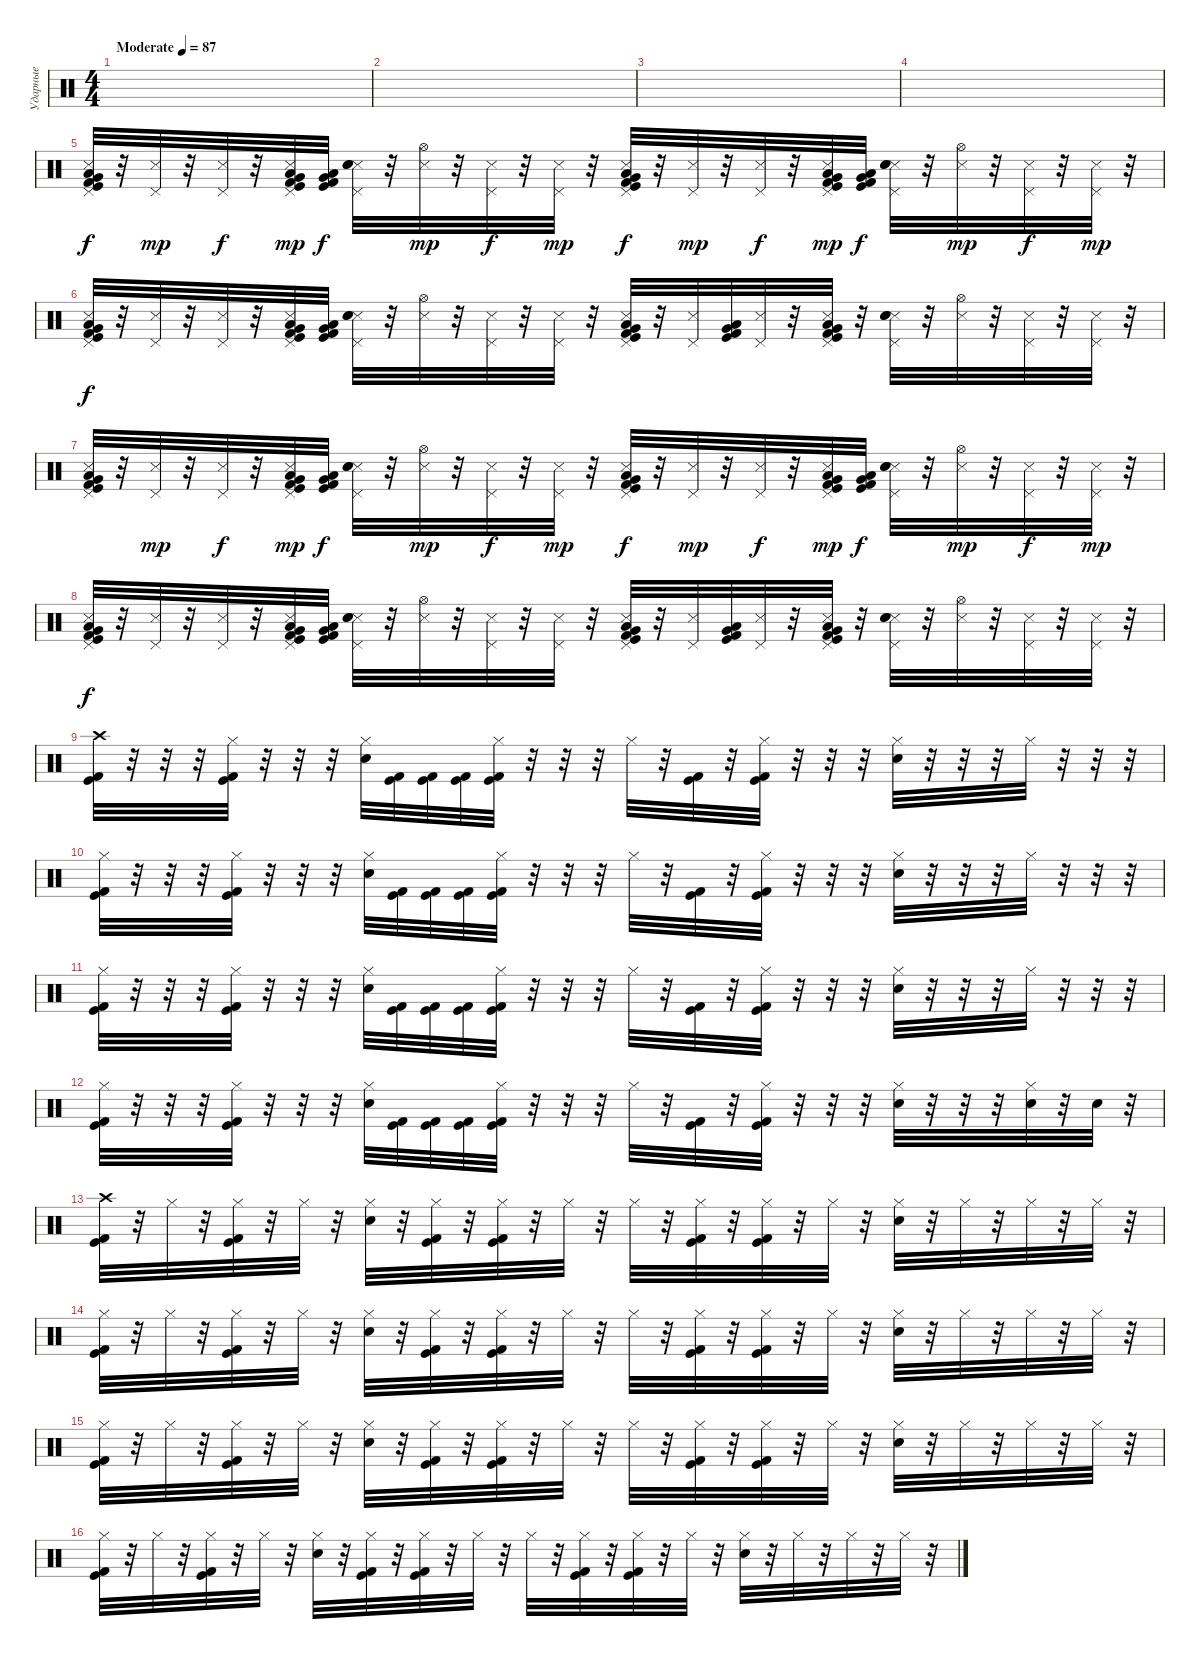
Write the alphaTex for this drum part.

\track ("Ударные" "Ударные") {instrument percussion}
\staff {score}
\articulation defaults
\ts (4 4)
\tempo (87 "Moderate")
\clef neutral
\ks c
|
|
|
|
("Snare (side stick) 3" "Pedal Hi-Hat (hit)" "Very Low Tom (hit)" "Low Floor Tom (hit)" "Kick (hit) 2" "Kick (hit)").32 r.32 ("Snare (side stick) 3" "Pedal Hi-Hat (hit)").32{dy mp} r.32 ("Snare (side stick) 3" "Pedal Hi-Hat (hit)").32{dy f} r.32 ("Snare (side stick) 3" "Pedal Hi-Hat (hit)" "Very Low Tom (hit)" "Low Floor Tom (hit)" "Kick (hit) 2" "Kick (hit)").32{dy mp} ("Very Low Tom (hit)" "Low Floor Tom (hit)" "Kick (hit) 2" "Kick (hit)").32{dy f} ("Snare (side stick) 3" "Pedal Hi-Hat (hit)" "Hand Clap (hit)" "Snare (hit) 2").32 r.32 ("Snare (side stick) 3" "Hi-Hat (open)").32{dy mp} r.32 ("Snare (side stick) 3" "Pedal Hi-Hat (hit)").32{dy f} r.32 ("Snare (side stick) 3" "Pedal Hi-Hat (hit)").32{dy mp} r.32 ("Snare (side stick) 3" "Pedal Hi-Hat (hit)" "Very Low Tom (hit)" "Low Floor Tom (hit)" "Kick (hit) 2" "Kick (hit)").32{dy f} r.32 ("Snare (side stick) 3" "Pedal Hi-Hat (hit)").32{dy mp} r.32 ("Snare (side stick) 3" "Pedal Hi-Hat (hit)").32{dy f} r.32 ("Snare (side stick) 3" "Pedal Hi-Hat (hit)" "Very Low Tom (hit)" "Low Floor Tom (hit)" "Kick (hit) 2" "Kick (hit)").32{dy mp} ("Very Low Tom (hit)" "Low Floor Tom (hit)" "Kick (hit) 2" "Kick (hit)").32{dy f} ("Snare (side stick) 3" "Pedal Hi-Hat (hit)" "Hand Clap (hit)" "Snare (hit) 2").32 r.32 ("Snare (side stick) 3" "Hi-Hat (open)").32{dy mp} r.32 ("Snare (side stick) 3" "Pedal Hi-Hat (hit)").32{dy f} r.32 ("Snare (side stick) 3" "Pedal Hi-Hat (hit)").32{dy mp} r.32 |
("Snare (side stick) 3" "Pedal Hi-Hat (hit)" "Very Low Tom (hit)" "Low Floor Tom (hit)" "Kick (hit) 2" "Kick (hit)").32{dy f} r.32 ("Snare (side stick) 3" "Pedal Hi-Hat (hit)").32 r.32 ("Snare (side stick) 3" "Pedal Hi-Hat (hit)").32 r.32 ("Snare (side stick) 3" "Pedal Hi-Hat (hit)" "Very Low Tom (hit)" "Low Floor Tom (hit)" "Kick (hit) 2" "Kick (hit)").32 ("Very Low Tom (hit)" "Low Floor Tom (hit)" "Kick (hit) 2" "Kick (hit)").32 ("Snare (side stick) 3" "Pedal Hi-Hat (hit)" "Hand Clap (hit)" "Snare (hit) 2").32 r.32 ("Snare (side stick) 3" "Hi-Hat (open)").32 r.32 ("Snare (side stick) 3" "Pedal Hi-Hat (hit)").32 r.32 ("Snare (side stick) 3" "Pedal Hi-Hat (hit)").32 r.32 ("Snare (side stick) 3" "Pedal Hi-Hat (hit)" "Very Low Tom (hit)" "Low Floor Tom (hit)" "Kick (hit) 2" "Kick (hit)").32 r.32 ("Snare (side stick) 3" "Pedal Hi-Hat (hit)").32 ("Very Low Tom (hit)" "Low Floor Tom (hit)" "Kick (hit) 2" "Kick (hit)").32 ("Snare (side stick) 3" "Pedal Hi-Hat (hit)").32 r.32 ("Snare (side stick) 3" "Pedal Hi-Hat (hit)" "Very Low Tom (hit)" "Low Floor Tom (hit)" "Kick (hit) 2" "Kick (hit)").32 r.32 ("Snare (side stick) 3" "Pedal Hi-Hat (hit)" "Hand Clap (hit)" "Snare (hit) 2").32 r.32 ("Snare (side stick) 3" "Hi-Hat (open)").32 r.32 ("Snare (side stick) 3" "Pedal Hi-Hat (hit)").32 r.32 ("Snare (side stick) 3" "Pedal Hi-Hat (hit)").32 r.32 |
("Snare (side stick) 3" "Pedal Hi-Hat (hit)" "Very Low Tom (hit)" "Low Floor Tom (hit)" "Kick (hit) 2" "Kick (hit)").32 r.32 ("Snare (side stick) 3" "Pedal Hi-Hat (hit)").32{dy mp} r.32 ("Snare (side stick) 3" "Pedal Hi-Hat (hit)").32{dy f} r.32 ("Snare (side stick) 3" "Pedal Hi-Hat (hit)" "Very Low Tom (hit)" "Low Floor Tom (hit)" "Kick (hit) 2" "Kick (hit)").32{dy mp} ("Very Low Tom (hit)" "Low Floor Tom (hit)" "Kick (hit) 2" "Kick (hit)").32{dy f} ("Snare (side stick) 3" "Pedal Hi-Hat (hit)" "Hand Clap (hit)" "Snare (hit) 2").32 r.32 ("Snare (side stick) 3" "Hi-Hat (open)").32{dy mp} r.32 ("Snare (side stick) 3" "Pedal Hi-Hat (hit)").32{dy f} r.32 ("Snare (side stick) 3" "Pedal Hi-Hat (hit)").32{dy mp} r.32 ("Snare (side stick) 3" "Pedal Hi-Hat (hit)" "Very Low Tom (hit)" "Low Floor Tom (hit)" "Kick (hit) 2" "Kick (hit)").32{dy f} r.32 ("Snare (side stick) 3" "Pedal Hi-Hat (hit)").32{dy mp} r.32 ("Snare (side stick) 3" "Pedal Hi-Hat (hit)").32{dy f} r.32 ("Snare (side stick) 3" "Pedal Hi-Hat (hit)" "Very Low Tom (hit)" "Low Floor Tom (hit)" "Kick (hit) 2" "Kick (hit)").32{dy mp} ("Very Low Tom (hit)" "Low Floor Tom (hit)" "Kick (hit) 2" "Kick (hit)").32{dy f} ("Snare (side stick) 3" "Pedal Hi-Hat (hit)" "Hand Clap (hit)" "Snare (hit) 2").32 r.32 ("Snare (side stick) 3" "Hi-Hat (open)").32{dy mp} r.32 ("Snare (side stick) 3" "Pedal Hi-Hat (hit)").32{dy f} r.32 ("Snare (side stick) 3" "Pedal Hi-Hat (hit)").32{dy mp} r.32 |
("Snare (side stick) 3" "Pedal Hi-Hat (hit)" "Very Low Tom (hit)" "Low Floor Tom (hit)" "Kick (hit) 2" "Kick (hit)").32{dy f} r.32 ("Snare (side stick) 3" "Pedal Hi-Hat (hit)").32 r.32 ("Snare (side stick) 3" "Pedal Hi-Hat (hit)").32 r.32 ("Snare (side stick) 3" "Pedal Hi-Hat (hit)" "Very Low Tom (hit)" "Low Floor Tom (hit)" "Kick (hit) 2" "Kick (hit)").32 ("Very Low Tom (hit)" "Low Floor Tom (hit)" "Kick (hit) 2" "Kick (hit)").32 ("Snare (side stick) 3" "Pedal Hi-Hat (hit)" "Hand Clap (hit)" "Snare (hit) 2").32 r.32 ("Snare (side stick) 3" "Hi-Hat (open)").32 r.32 ("Snare (side stick) 3" "Pedal Hi-Hat (hit)").32 r.32 ("Snare (side stick) 3" "Pedal Hi-Hat (hit)").32 r.32 ("Snare (side stick) 3" "Pedal Hi-Hat (hit)" "Very Low Tom (hit)" "Low Floor Tom (hit)" "Kick (hit) 2" "Kick (hit)").32 r.32 ("Snare (side stick) 3" "Pedal Hi-Hat (hit)").32 ("Very Low Tom (hit)" "Low Floor Tom (hit)" "Kick (hit) 2" "Kick (hit)").32 ("Snare (side stick) 3" "Pedal Hi-Hat (hit)").32 r.32 ("Snare (side stick) 3" "Pedal Hi-Hat (hit)" "Very Low Tom (hit)" "Low Floor Tom (hit)" "Kick (hit) 2" "Kick (hit)").32 r.32 ("Snare (side stick) 3" "Pedal Hi-Hat (hit)" "Hand Clap (hit)" "Snare (hit) 2").32 r.32 ("Snare (side stick) 3" "Hi-Hat (open)").32 r.32 ("Snare (side stick) 3" "Pedal Hi-Hat (hit)").32 r.32 ("Snare (side stick) 3" "Pedal Hi-Hat (hit)").32 r.32 |
("Crash high (hit)" "Kick (hit) 2" "Kick (hit)").32 r.32 r.32 r.32 ("Hi-Hat (closed)" "Kick (hit) 2" "Kick (hit)").32 r.32 r.32 r.32 ("Hi-Hat (closed)" "Electric Snare (hit)").32 ("Kick (hit) 2" "Kick (hit)").32 ("Kick (hit) 2" "Kick (hit)").32 ("Kick (hit) 2" "Kick (hit)").32 ("Hi-Hat (closed)" "Kick (hit) 2" "Kick (hit)").32 r.32 r.32 r.32 "Hi-Hat (closed)".32 r.32 ("Kick (hit) 2" "Kick (hit)").32 r.32 ("Hi-Hat (closed)" "Kick (hit) 2" "Kick (hit)").32 r.32 r.32 r.32 ("Hi-Hat (closed)" "Electric Snare (hit)").32 r.32 r.32 r.32 "Hi-Hat (closed)".32 r.32 r.32 r.32 |
("Hi-Hat (closed)" "Kick (hit) 2" "Kick (hit)").32 r.32 r.32 r.32 ("Hi-Hat (closed)" "Kick (hit) 2" "Kick (hit)").32 r.32 r.32 r.32 ("Hi-Hat (closed)" "Electric Snare (hit)").32 ("Kick (hit) 2" "Kick (hit)").32 ("Kick (hit) 2" "Kick (hit)").32 ("Kick (hit) 2" "Kick (hit)").32 ("Hi-Hat (closed)" "Kick (hit) 2" "Kick (hit)").32 r.32 r.32 r.32 "Hi-Hat (closed)".32 r.32 ("Kick (hit) 2" "Kick (hit)").32 r.32 ("Hi-Hat (closed)" "Kick (hit) 2" "Kick (hit)").32 r.32 r.32 r.32 ("Hi-Hat (closed)" "Electric Snare (hit)").32 r.32 r.32 r.32 "Hi-Hat (closed)".32 r.32 r.32 r.32 |
("Hi-Hat (closed)" "Kick (hit) 2" "Kick (hit)").32 r.32 r.32 r.32 ("Hi-Hat (closed)" "Kick (hit) 2" "Kick (hit)").32 r.32 r.32 r.32 ("Hi-Hat (closed)" "Electric Snare (hit)").32 ("Kick (hit) 2" "Kick (hit)").32 ("Kick (hit) 2" "Kick (hit)").32 ("Kick (hit) 2" "Kick (hit)").32 ("Hi-Hat (closed)" "Kick (hit) 2" "Kick (hit)").32 r.32 r.32 r.32 "Hi-Hat (closed)".32 r.32 ("Kick (hit) 2" "Kick (hit)").32 r.32 ("Hi-Hat (closed)" "Kick (hit) 2" "Kick (hit)").32 r.32 r.32 r.32 ("Hi-Hat (closed)" "Electric Snare (hit)").32 r.32 r.32 r.32 "Hi-Hat (closed)".32 r.32 r.32 r.32 |
("Hi-Hat (closed)" "Kick (hit) 2" "Kick (hit)").32 r.32 r.32 r.32 ("Hi-Hat (closed)" "Kick (hit) 2" "Kick (hit)").32 r.32 r.32 r.32 ("Hi-Hat (closed)" "Electric Snare (hit)").32 ("Kick (hit) 2" "Kick (hit)").32 ("Kick (hit) 2" "Kick (hit)").32 ("Kick (hit) 2" "Kick (hit)").32 ("Hi-Hat (closed)" "Kick (hit) 2" "Kick (hit)").32 r.32 r.32 r.32 "Hi-Hat (closed)".32 r.32 ("Kick (hit) 2" "Kick (hit)").32 r.32 ("Hi-Hat (closed)" "Kick (hit) 2" "Kick (hit)").32 r.32 r.32 r.32 ("Hi-Hat (closed)" "Electric Snare (hit)").32 r.32 r.32 r.32 ("Hi-Hat (closed)" "Electric Snare (hit)").32 r.32 "Electric Snare (hit)".32 r.32 |
("Crash high (hit)" "Kick (hit) 2" "Kick (hit)").32 r.32 "Hi-Hat (closed)".32 r.32 ("Hi-Hat (closed)" "Kick (hit) 2" "Kick (hit)").32 r.32 "Hi-Hat (closed)".32 r.32 ("Hi-Hat (closed)" "Electric Snare (hit)").32 r.32 ("Hi-Hat (closed)" "Kick (hit) 2" "Kick (hit)").32 r.32 ("Hi-Hat (closed)" "Kick (hit) 2" "Kick (hit)").32 r.32 "Hi-Hat (closed)".32 r.32 "Hi-Hat (closed)".32 r.32 ("Hi-Hat (closed)" "Kick (hit) 2" "Kick (hit)").32 r.32 ("Hi-Hat (closed)" "Kick (hit) 2" "Kick (hit)").32 r.32 "Hi-Hat (closed)".32 r.32 ("Hi-Hat (closed)" "Electric Snare (hit)").32 r.32 "Hi-Hat (closed)".32 r.32 "Hi-Hat (closed)".32 r.32 "Hi-Hat (closed)".32 r.32 |
("Hi-Hat (closed)" "Kick (hit) 2" "Kick (hit)").32 r.32 "Hi-Hat (closed)".32 r.32 ("Hi-Hat (closed)" "Kick (hit) 2" "Kick (hit)").32 r.32 "Hi-Hat (closed)".32 r.32 ("Hi-Hat (closed)" "Electric Snare (hit)").32 r.32 ("Hi-Hat (closed)" "Kick (hit) 2" "Kick (hit)").32 r.32 ("Hi-Hat (closed)" "Kick (hit) 2" "Kick (hit)").32 r.32 "Hi-Hat (closed)".32 r.32 "Hi-Hat (closed)".32 r.32 ("Hi-Hat (closed)" "Kick (hit) 2" "Kick (hit)").32 r.32 ("Hi-Hat (closed)" "Kick (hit) 2" "Kick (hit)").32 r.32 "Hi-Hat (closed)".32 r.32 ("Hi-Hat (closed)" "Electric Snare (hit)").32 r.32 "Hi-Hat (closed)".32 r.32 "Hi-Hat (closed)".32 r.32 "Hi-Hat (closed)".32 r.32 |
("Hi-Hat (closed)" "Kick (hit) 2" "Kick (hit)").32 r.32 "Hi-Hat (closed)".32 r.32 ("Hi-Hat (closed)" "Kick (hit) 2" "Kick (hit)").32 r.32 "Hi-Hat (closed)".32 r.32 ("Hi-Hat (closed)" "Electric Snare (hit)").32 r.32 ("Hi-Hat (closed)" "Kick (hit) 2" "Kick (hit)").32 r.32 ("Hi-Hat (closed)" "Kick (hit) 2" "Kick (hit)").32 r.32 "Hi-Hat (closed)".32 r.32 "Hi-Hat (closed)".32 r.32 ("Hi-Hat (closed)" "Kick (hit) 2" "Kick (hit)").32 r.32 ("Hi-Hat (closed)" "Kick (hit) 2" "Kick (hit)").32 r.32 "Hi-Hat (closed)".32 r.32 ("Hi-Hat (closed)" "Electric Snare (hit)").32 r.32 "Hi-Hat (closed)".32 r.32 "Hi-Hat (closed)".32 r.32 "Hi-Hat (closed)".32 r.32 |
("Hi-Hat (closed)" "Kick (hit) 2" "Kick (hit)").32 r.32 "Hi-Hat (closed)".32 r.32 ("Hi-Hat (closed)" "Kick (hit) 2" "Kick (hit)").32 r.32 "Hi-Hat (closed)".32 r.32 ("Hi-Hat (closed)" "Electric Snare (hit)").32 r.32 ("Hi-Hat (closed)" "Kick (hit) 2" "Kick (hit)").32 r.32 ("Hi-Hat (closed)" "Kick (hit) 2" "Kick (hit)").32 r.32 "Hi-Hat (closed)".32 r.32 "Hi-Hat (closed)".32 r.32 ("Hi-Hat (closed)" "Kick (hit) 2" "Kick (hit)").32 r.32 ("Hi-Hat (closed)" "Kick (hit) 2" "Kick (hit)").32 r.32 "Hi-Hat (closed)".32 r.32 ("Hi-Hat (closed)" "Electric Snare (hit)").32 r.32 "Hi-Hat (closed)".32 r.32 "Hi-Hat (closed)".32 r.32 "Hi-Hat (closed)".32 r.32
